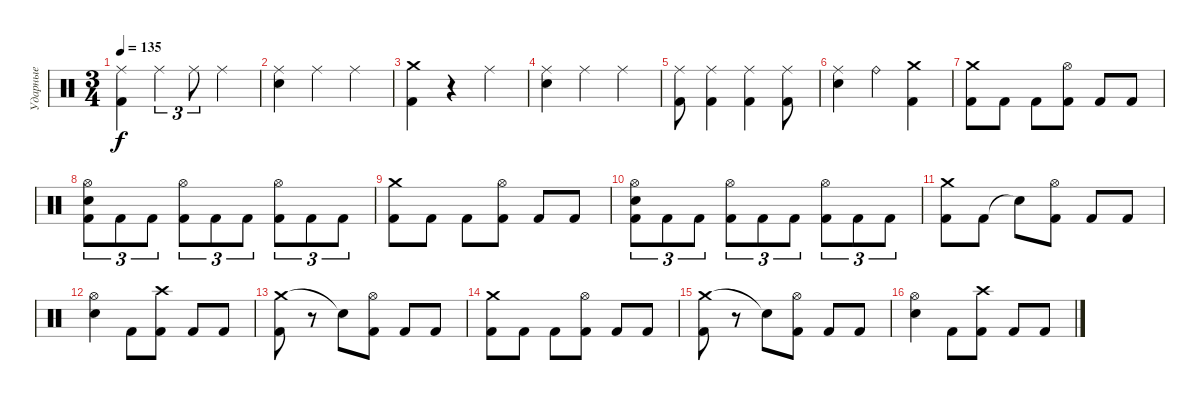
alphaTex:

\track ("Ударные" "Ударные") {instrument percussion}
\staff {score}
\articulation defaults
\ts (3 4)
\tempo 135
\clef neutral
\ks c
("Ride (middle)" "Kick (hit) 2").4{dy f} "Ride (middle)".4{tu (3 2)} "Ride (middle)".8{tu (3 2)} "Ride (middle)".4 |
("Ride (middle)" "Electric Snare (hit)").4 "Ride (middle)".4 "Ride (middle)".4 |
("Crash medium (hit)" "Kick (hit) 2").4 r.4 "Ride (middle)".4 |
("Ride (middle)" "Electric Snare (hit)").4 "Ride (middle)".4 "Ride (middle)".4 |
("Ride (middle)" "Kick (hit) 2").8 ("Ride (middle)" "Kick (hit) 2").4 ("Ride (middle)" "Kick (hit) 2").4 ("Ride (middle)" "Kick (hit) 2").8 |
("Ride (middle)" "Electric Snare (hit)").4 "Ride (bell)".4 ("Crash medium (hit)" "Kick (hit) 2").4 |
("Crash medium (hit)" "Kick (hit) 2").8 "Kick (hit) 2".8 "Kick (hit) 2".8 ("Hi-Hat (open)" "Kick (hit) 2").8 "Kick (hit) 2".8 "Kick (hit) 2".8 |
("Hi-Hat (open)" "Electric Snare (hit)" "Kick (hit) 2").8{tu (3 2)} "Kick (hit) 2".8{tu (3 2)} "Kick (hit) 2".8{tu (3 2)} ("Hi-Hat (open)" "Kick (hit) 2").8{tu (3 2)} "Kick (hit) 2".8{tu (3 2)} "Kick (hit) 2".8{tu (3 2)} ("Hi-Hat (open)" "Kick (hit) 2").8{tu (3 2)} "Kick (hit) 2".8{tu (3 2)} "Kick (hit) 2".8{tu (3 2)} |
("Crash medium (hit)" "Kick (hit) 2").8 "Kick (hit) 2".8 "Kick (hit) 2".8 ("Hi-Hat (open)" "Kick (hit) 2").8 "Kick (hit) 2".8 "Kick (hit) 2".8 |
("Hi-Hat (open)" "Electric Snare (hit)" "Kick (hit) 2").8{tu (3 2)} "Kick (hit) 2".8{tu (3 2)} "Kick (hit) 2".8{tu (3 2)} ("Hi-Hat (open)" "Kick (hit) 2").8{tu (3 2)} "Kick (hit) 2".8{tu (3 2)} "Kick (hit) 2".8{tu (3 2)} ("Hi-Hat (open)" "Kick (hit) 2").8{tu (3 2)} "Kick (hit) 2".8{tu (3 2)} "Kick (hit) 2".8{tu (3 2)} |
("Crash medium (hit)" "Kick (hit) 2").8 "Kick (hit) 2".8 "Snare (hit)"{t}.8 ("Hi-Hat (open)" "Kick (hit) 2").8 "Kick (hit) 2".8 "Kick (hit) 2".8 |
("Hi-Hat (open)" "Electric Snare (hit)").4 "Kick (hit) 2".8 ("Crash high (hit)" "Kick (hit) 2").8 "Kick (hit) 2".8 "Kick (hit) 2".8 |
("Crash medium (hit)" "Kick (hit) 2").8 r.8 "Snare (hit)"{t}.8 ("Hi-Hat (open)" "Kick (hit) 2").8 "Kick (hit) 2".8 "Kick (hit) 2".8 |
("Crash medium (hit)" "Kick (hit) 2").8 "Kick (hit) 2".8 "Kick (hit) 2".8 ("Hi-Hat (open)" "Kick (hit) 2").8 "Kick (hit) 2".8 "Kick (hit) 2".8 |
("Crash medium (hit)" "Kick (hit) 2").8 r.8 "Snare (hit)"{t}.8 ("Hi-Hat (open)" "Kick (hit) 2").8 "Kick (hit) 2".8 "Kick (hit) 2".8 |
("Hi-Hat (open)" "Electric Snare (hit)").4 "Kick (hit) 2".8 ("Crash high (hit)" "Kick (hit) 2").8 "Kick (hit) 2".8 "Kick (hit) 2".8
